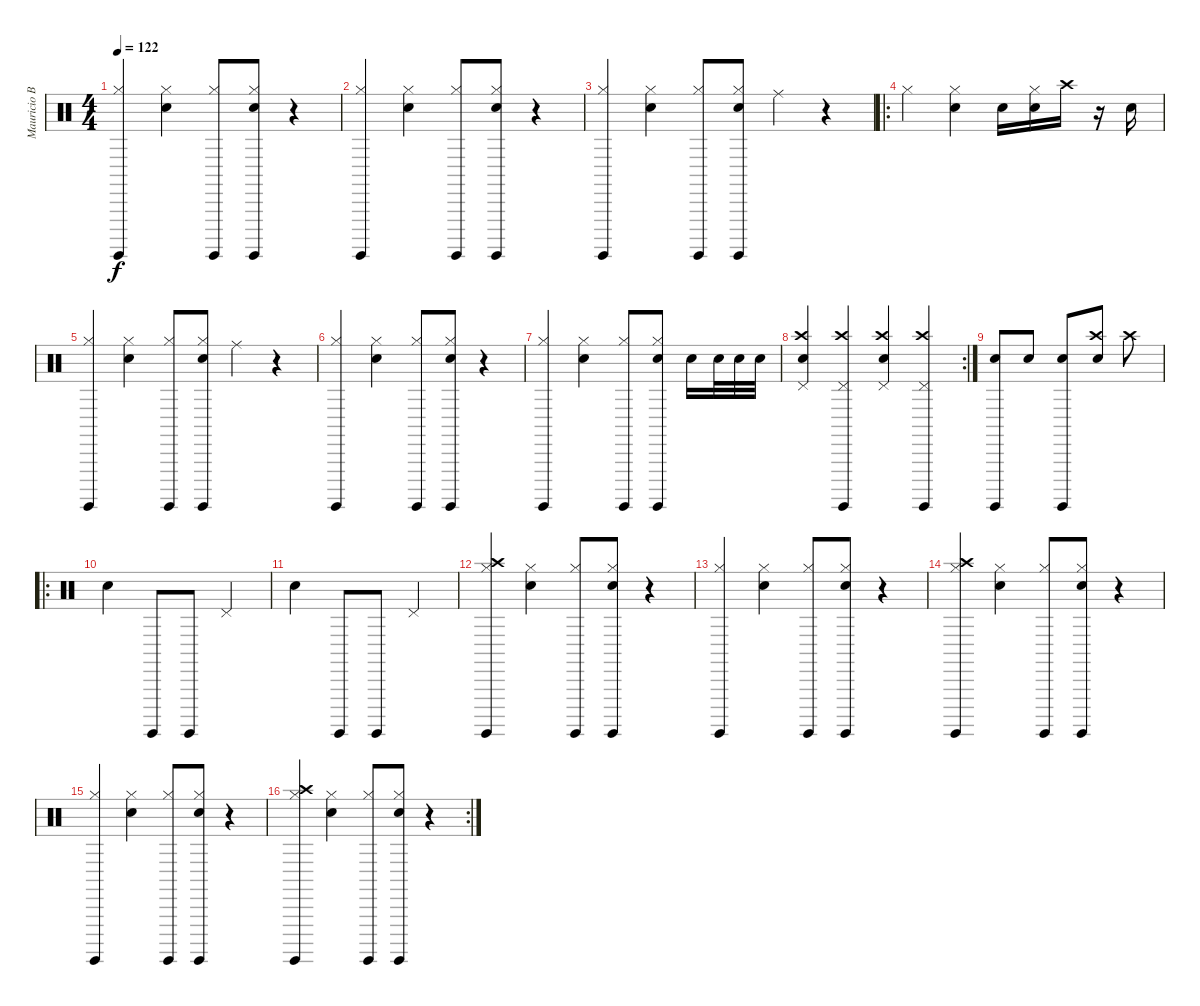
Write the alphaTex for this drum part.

\track ("Mauricio Basualto" "Mauricio B") {instrument percussion}
\staff {score}
\articulation defaults
\ts (4 4)
\tempo 122
\clef neutral
\ks c
("Surdo (hit)" "Hi-Hat (closed)").4{dy f} ("Hi-Hat (closed)" "Snare (hit) 2").4 ("Surdo (hit)" "Hi-Hat (closed)").8 ("Surdo (hit)" "Hi-Hat (closed)" "Snare (hit) 2").8 r.4 |
("Surdo (hit)" "Hi-Hat (closed)").4 ("Hi-Hat (closed)" "Snare (hit) 2").4 ("Surdo (hit)" "Hi-Hat (closed)").8 ("Surdo (hit)" "Hi-Hat (closed)" "Snare (hit) 2").8 r.4 |
("Surdo (hit)" "Hi-Hat (closed)").4 ("Hi-Hat (closed)" "Snare (hit) 2").4 ("Surdo (hit)" "Hi-Hat (closed)").8 ("Surdo (hit)" "Hi-Hat (closed)" "Snare (hit) 2").8 "Ride (middle)".4 r.4 |
\ro "Hi-Hat (closed)".4
("Hi-Hat (closed)" "Snare (hit) 2").4 "Snare (hit) 2".16 ("Snare (hit) 2" "Hi-Hat (closed)").16 "Crash high (hit)".16 r.16 "Snare (hit) 2".16 |
("Surdo (hit)" "Hi-Hat (closed)").4 ("Hi-Hat (closed)" "Snare (hit) 2").4 ("Surdo (hit)" "Hi-Hat (closed)").8 ("Surdo (hit)" "Hi-Hat (closed)" "Snare (hit) 2").8 "Ride (middle)".4 r.4 |
("Surdo (hit)" "Hi-Hat (closed)").4 ("Hi-Hat (closed)" "Snare (hit) 2").4 ("Surdo (hit)" "Hi-Hat (closed)").8 ("Surdo (hit)" "Hi-Hat (closed)" "Snare (hit) 2").8 r.4 |
("Surdo (hit)" "Hi-Hat (closed)").4 ("Hi-Hat (closed)" "Snare (hit) 2").4 ("Surdo (hit)" "Hi-Hat (closed)").8 ("Surdo (hit)" "Hi-Hat (closed)" "Snare (hit) 2").8 "Snare (hit) 2".16 "Snare (hit) 2".32 "Snare (hit) 2".32 "Snare (hit) 2".32 |
\rc 2
("Crash high (hit)" "Snare (hit) 2" "Pedal Hi-Hat (hit)").4 ("Crash high (hit)" "Surdo (hit)" "Pedal Hi-Hat (hit)").4 ("Crash high (hit)" "Snare (hit) 2" "Pedal Hi-Hat (hit)").4 ("Crash high (hit)" "Surdo (hit)" "Pedal Hi-Hat (hit)").4 |
("Snare (hit) 2" "Surdo (hit)").8 "Snare (hit) 2".8 ("Snare (hit) 2" "Surdo (hit)").8 ("Snare (hit) 2" "Crash high (hit)").8 "Crash high (hit)".8 |
\ro "Snare (hit) 2".4 "Surdo (hit)".8 "Surdo (hit)".8 "Pedal Hi-Hat (hit)".4
|
"Snare (hit) 2".4 "Surdo (hit)".8 "Surdo (hit)".8 "Pedal Hi-Hat (hit)".4 |
("Surdo (hit)" "Hi-Hat (closed)" "Crash high (hit)").4 ("Hi-Hat (closed)" "Snare (hit) 2").4 ("Surdo (hit)" "Hi-Hat (closed)").8 ("Surdo (hit)" "Hi-Hat (closed)" "Snare (hit) 2").8 r.4 |
("Surdo (hit)" "Hi-Hat (closed)").4 ("Hi-Hat (closed)" "Snare (hit) 2").4 ("Surdo (hit)" "Hi-Hat (closed)").8 ("Surdo (hit)" "Hi-Hat (closed)" "Snare (hit) 2").8 r.4 |
("Surdo (hit)" "Hi-Hat (closed)" "Crash high (hit)").4 ("Hi-Hat (closed)" "Snare (hit) 2").4 ("Surdo (hit)" "Hi-Hat (closed)").8 ("Surdo (hit)" "Hi-Hat (closed)" "Snare (hit) 2").8 r.4 |
("Surdo (hit)" "Hi-Hat (closed)").4 ("Hi-Hat (closed)" "Snare (hit) 2").4 ("Surdo (hit)" "Hi-Hat (closed)").8 ("Surdo (hit)" "Hi-Hat (closed)" "Snare (hit) 2").8 r.4 |
\rc 2
("Surdo (hit)" "Hi-Hat (closed)" "Crash high (hit)").4 ("Hi-Hat (closed)" "Snare (hit) 2").4 ("Surdo (hit)" "Hi-Hat (closed)").8 ("Surdo (hit)" "Hi-Hat (closed)" "Snare (hit) 2").8 r.4
